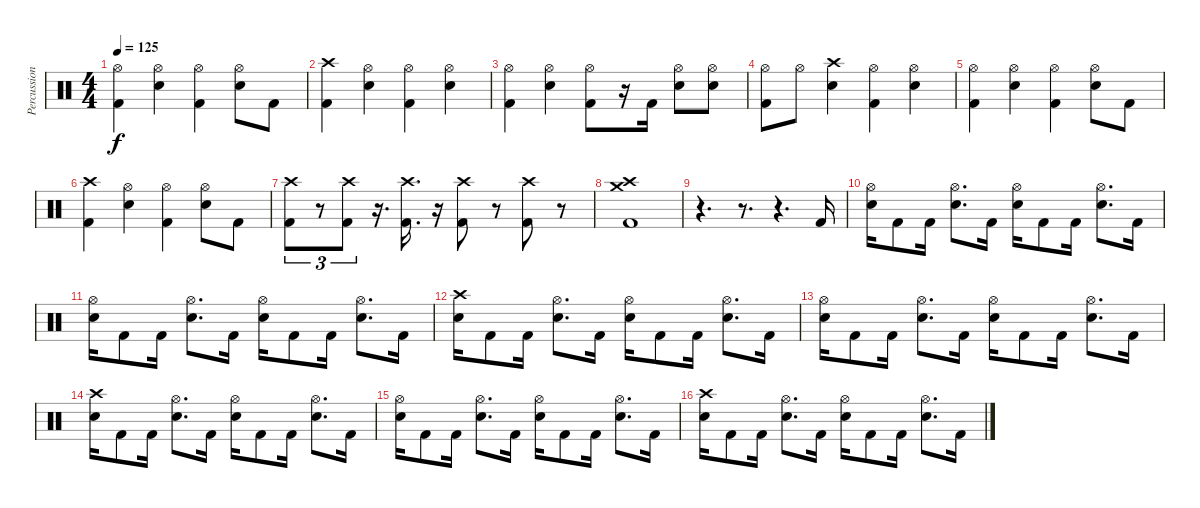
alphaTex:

\track ("Percussion" "Percussion") {instrument percussion}
\staff {score}
\articulation defaults
\ts (4 4)
\tempo 125
\clef neutral
\ks c
("Hi-Hat (open)" "Kick (hit) 2").4{dy f} ("Hi-Hat (open)" "Electric Snare (hit)").4 ("Hi-Hat (open)" "Kick (hit) 2").4 ("Hi-Hat (open)" "Electric Snare (hit)").8 "Kick (hit) 2".8 |
("Crash high (hit)" "Kick (hit) 2").4 ("Hi-Hat (open)" "Electric Snare (hit)").4 ("Hi-Hat (open)" "Kick (hit) 2").4 ("Hi-Hat (open)" "Electric Snare (hit)").4 |
("Hi-Hat (open)" "Kick (hit) 2").4 ("Hi-Hat (open)" "Electric Snare (hit)").4 ("Hi-Hat (open)" "Kick (hit) 2").8 r.16 "Kick (hit) 2".16 ("Hi-Hat (open)" "Electric Snare (hit)").8 ("Hi-Hat (open)" "Electric Snare (hit)").8 |
("Hi-Hat (open)" "Kick (hit) 2").8 "Hi-Hat (open)".8 ("Crash high (hit)" "Electric Snare (hit)").4 ("Hi-Hat (open)" "Kick (hit) 2").4 ("Hi-Hat (open)" "Electric Snare (hit)").4 |
("Hi-Hat (open)" "Kick (hit) 2").4 ("Hi-Hat (open)" "Electric Snare (hit)").4 ("Hi-Hat (open)" "Kick (hit) 2").4 ("Hi-Hat (open)" "Electric Snare (hit)").8 "Kick (hit) 2".8 |
("Crash high (hit)" "Kick (hit) 2").4 ("Hi-Hat (open)" "Electric Snare (hit)").4 ("Hi-Hat (open)" "Kick (hit) 2").4 ("Hi-Hat (open)" "Electric Snare (hit)").8 "Kick (hit) 2".8 |
("Crash high (hit)" "Kick (hit) 2").8{tu (3 2) volume 13} r.8{tu (3 2) volume 0} ("Crash high (hit)" "Kick (hit) 2").8{tu (3 2) volume 13} r.16{d volume 0} ("Crash high (hit)" "Kick (hit) 2").16{d volume 13} r.16{volume 0} ("Crash high (hit)" "Kick (hit) 2").8{volume 13} r.8{volume 0} ("Crash high (hit)" "Kick (hit) 2").8{volume 13} r.8{volume 0} |
("Crash high (hit)" "Crash medium (hit)" "Kick (hit) 2").1{volume 13} |
r.4{d} r.8{d} r.4{d} "Kick (hit) 2".16 |
("Hi-Hat (open)" "Electric Snare (hit)").16 "Kick (hit) 2".8 "Kick (hit) 2".16 ("Hi-Hat (open)" "Electric Snare (hit)").8{d} "Kick (hit) 2".16 ("Hi-Hat (open)" "Electric Snare (hit)").16 "Kick (hit) 2".8 "Kick (hit) 2".16 ("Hi-Hat (open)" "Electric Snare (hit)").8{d} "Kick (hit) 2".16 |
("Hi-Hat (open)" "Electric Snare (hit)").16 "Kick (hit) 2".8 "Kick (hit) 2".16 ("Hi-Hat (open)" "Electric Snare (hit)").8{d} "Kick (hit) 2".16 ("Hi-Hat (open)" "Electric Snare (hit)").16 "Kick (hit) 2".8 "Kick (hit) 2".16 ("Hi-Hat (open)" "Electric Snare (hit)").8{d} "Kick (hit) 2".16 |
("Crash high (hit)" "Electric Snare (hit)").16 "Kick (hit) 2".8 "Kick (hit) 2".16 ("Hi-Hat (open)" "Electric Snare (hit)").8{d} "Kick (hit) 2".16 ("Hi-Hat (open)" "Electric Snare (hit)").16 "Kick (hit) 2".8 "Kick (hit) 2".16 ("Hi-Hat (open)" "Electric Snare (hit)").8{d} "Kick (hit) 2".16 |
("Hi-Hat (open)" "Electric Snare (hit)").16 "Kick (hit) 2".8 "Kick (hit) 2".16 ("Hi-Hat (open)" "Electric Snare (hit)").8{d} "Kick (hit) 2".16 ("Hi-Hat (open)" "Electric Snare (hit)").16 "Kick (hit) 2".8 "Kick (hit) 2".16 ("Hi-Hat (open)" "Electric Snare (hit)").8{d} "Kick (hit) 2".16 |
("Crash high (hit)" "Electric Snare (hit)").16 "Kick (hit) 2".8 "Kick (hit) 2".16 ("Hi-Hat (open)" "Electric Snare (hit)").8{d} "Kick (hit) 2".16 ("Hi-Hat (open)" "Electric Snare (hit)").16 "Kick (hit) 2".8 "Kick (hit) 2".16 ("Hi-Hat (open)" "Electric Snare (hit)").8{d} "Kick (hit) 2".16 |
("Hi-Hat (open)" "Electric Snare (hit)").16 "Kick (hit) 2".8 "Kick (hit) 2".16 ("Hi-Hat (open)" "Electric Snare (hit)").8{d} "Kick (hit) 2".16 ("Hi-Hat (open)" "Electric Snare (hit)").16 "Kick (hit) 2".8 "Kick (hit) 2".16 ("Hi-Hat (open)" "Electric Snare (hit)").8{d} "Kick (hit) 2".16 |
("Crash high (hit)" "Electric Snare (hit)").16 "Kick (hit) 2".8 "Kick (hit) 2".16 ("Hi-Hat (open)" "Electric Snare (hit)").8{d} "Kick (hit) 2".16 ("Hi-Hat (open)" "Electric Snare (hit)").16 "Kick (hit) 2".8 "Kick (hit) 2".16 ("Hi-Hat (open)" "Electric Snare (hit)").8{d} "Kick (hit) 2".16
